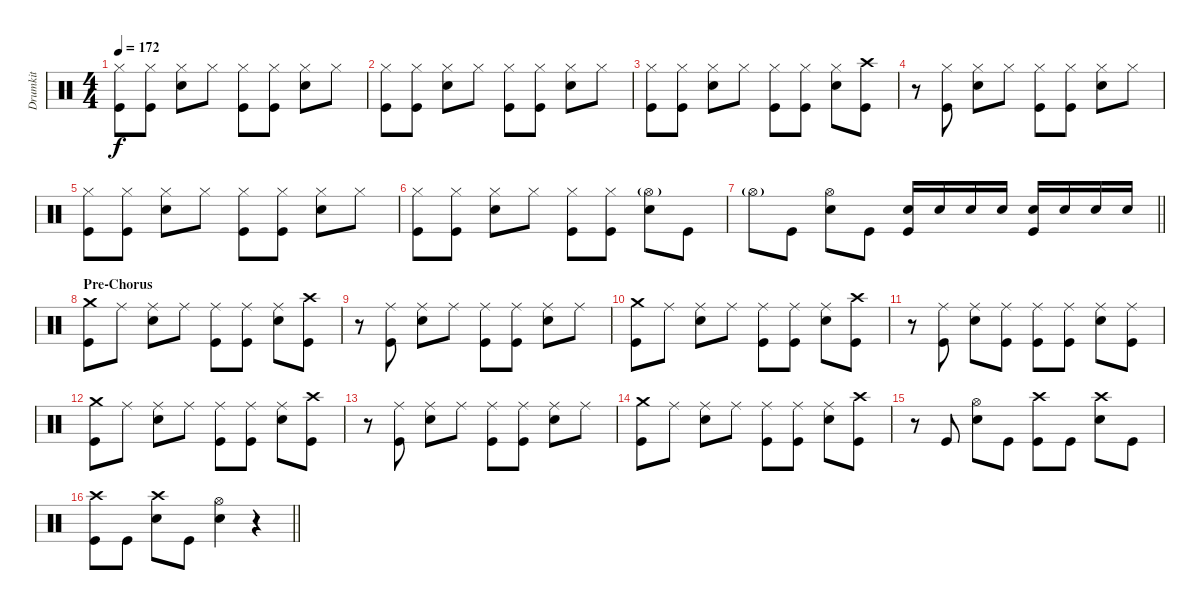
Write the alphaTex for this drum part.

\track ("Drumkit" "Drumkit") {instrument percussion}
\staff {score}
\articulation defaults
\ts (4 4)
\tempo 172
\clef neutral
\ks c
("Hi-Hat (closed)" "Kick (hit)").8{dy f} ("Hi-Hat (closed)" "Kick (hit)").8 ("Hi-Hat (closed)" "Snare (hit) 2").8 "Hi-Hat (closed)".8 ("Hi-Hat (closed)" "Kick (hit)").8 ("Hi-Hat (closed)" "Kick (hit)").8 ("Hi-Hat (closed)" "Snare (hit) 2").8 "Hi-Hat (closed)".8 |
("Hi-Hat (closed)" "Kick (hit)").8 ("Hi-Hat (closed)" "Kick (hit)").8 ("Hi-Hat (closed)" "Snare (hit) 2").8 "Hi-Hat (closed)".8 ("Hi-Hat (closed)" "Kick (hit)").8 ("Hi-Hat (closed)" "Kick (hit)").8 ("Hi-Hat (closed)" "Snare (hit) 2").8 "Hi-Hat (closed)".8 |
("Hi-Hat (closed)" "Kick (hit)").8 ("Hi-Hat (closed)" "Kick (hit)").8 ("Hi-Hat (closed)" "Snare (hit) 2").8 "Hi-Hat (closed)".8 ("Hi-Hat (closed)" "Kick (hit)").8 ("Hi-Hat (closed)" "Kick (hit)").8 ("Hi-Hat (closed)" "Snare (hit) 2").8 ("Crash high (hit)" "Kick (hit)").8 |
r.8 ("Hi-Hat (closed)" "Kick (hit)").8 ("Hi-Hat (closed)" "Snare (hit) 2").8 "Hi-Hat (closed)".8 ("Hi-Hat (closed)" "Kick (hit)").8 ("Hi-Hat (closed)" "Kick (hit)").8 ("Hi-Hat (closed)" "Snare (hit) 2").8 "Hi-Hat (closed)".8 |
("Hi-Hat (closed)" "Kick (hit)").8 ("Hi-Hat (closed)" "Kick (hit)").8 ("Hi-Hat (closed)" "Snare (hit) 2").8 "Hi-Hat (closed)".8 ("Hi-Hat (closed)" "Kick (hit)").8 ("Hi-Hat (closed)" "Kick (hit)").8 ("Hi-Hat (closed)" "Snare (hit) 2").8 "Hi-Hat (closed)".8 |
("Hi-Hat (closed)" "Kick (hit)").8 ("Hi-Hat (closed)" "Kick (hit)").8 ("Hi-Hat (closed)" "Snare (hit) 2").8 "Hi-Hat (closed)".8 ("Hi-Hat (closed)" "Kick (hit)").8 ("Hi-Hat (closed)" "Kick (hit)").8 ("Hi-Hat (open)"{g} "Snare (hit) 2").8 "Kick (hit)".8 |
\barLineRight lightlight "Hi-Hat (open)"{g}.8 "Kick (hit)".8
("Hi-Hat (open)" "Snare (hit) 2").8 "Kick (hit)".8 ("Snare (hit) 2" "Kick (hit)").16 "Snare (hit) 2".16 "Snare (hit) 2".16 "Snare (hit) 2".16 ("Snare (hit) 2" "Kick (hit)").16 "Snare (hit) 2".16 "Snare (hit) 2".16 "Snare (hit) 2".16 |
\section ("" "Pre-Chorus")
("Crash medium (hit)" "Kick (hit)").8 "Ride (middle)".8 ("Ride (middle)" "Snare (hit) 2").8 "Ride (middle)".8 ("Ride (middle)" "Kick (hit)").8 ("Ride (middle)" "Kick (hit)").8 ("Ride (middle)" "Snare (hit) 2").8 ("Crash high (hit)" "Kick (hit)").8 |
r.8 ("Ride (middle)" "Kick (hit)").8 ("Ride (middle)" "Snare (hit) 2").8 "Ride (middle)".8 ("Ride (middle)" "Kick (hit)").8 ("Ride (middle)" "Kick (hit)").8 ("Ride (middle)" "Snare (hit) 2").8 "Ride (middle)".8 |
("Crash medium (hit)" "Kick (hit)").8 "Ride (middle)".8 ("Ride (middle)" "Snare (hit) 2").8 "Ride (middle)".8 ("Ride (middle)" "Kick (hit)").8 ("Ride (middle)" "Kick (hit)").8 ("Ride (middle)" "Snare (hit) 2").8 ("Crash high (hit)" "Kick (hit)").8 |
r.8 ("Ride (middle)" "Kick (hit)").8 ("Ride (middle)" "Snare (hit) 2").8 ("Ride (middle)" "Kick (hit)").8 ("Ride (middle)" "Kick (hit)").8 ("Ride (middle)" "Kick (hit)").8 ("Ride (middle)" "Snare (hit) 2").8 ("Ride (middle)" "Kick (hit)").8 |
("Crash medium (hit)" "Kick (hit)").8 "Ride (middle)".8 ("Ride (middle)" "Snare (hit) 2").8 "Ride (middle)".8 ("Ride (middle)" "Kick (hit)").8 ("Ride (middle)" "Kick (hit)").8 ("Ride (middle)" "Snare (hit) 2").8 ("Crash high (hit)" "Kick (hit)").8 |
r.8 ("Ride (middle)" "Kick (hit)").8 ("Ride (middle)" "Snare (hit) 2").8 "Ride (middle)".8 ("Ride (middle)" "Kick (hit)").8 ("Ride (middle)" "Kick (hit)").8 ("Ride (middle)" "Snare (hit) 2").8 "Ride (middle)".8 |
("Crash medium (hit)" "Kick (hit)").8 "Ride (middle)".8 ("Ride (middle)" "Snare (hit) 2").8 "Ride (middle)".8 ("Ride (middle)" "Kick (hit)").8 ("Ride (middle)" "Kick (hit)").8 ("Ride (middle)" "Snare (hit) 2").8 ("Crash high (hit)" "Kick (hit)").8 |
r.8 "Kick (hit)".8 ("Hi-Hat (open)" "Snare (hit) 2").8 "Kick (hit)".8 ("Crash high (hit)" "Kick (hit)").8 "Kick (hit)".8 ("Crash high (hit)" "Snare (hit) 2").8 "Kick (hit)".8 |
\barLineRight lightlight
("Crash high (hit)" "Kick (hit)").8 "Kick (hit)".8 ("Crash high (hit)" "Snare (hit) 2").8 "Kick (hit)".8 ("Hi-Hat (open)" "Snare (hit) 2").4 r.4
